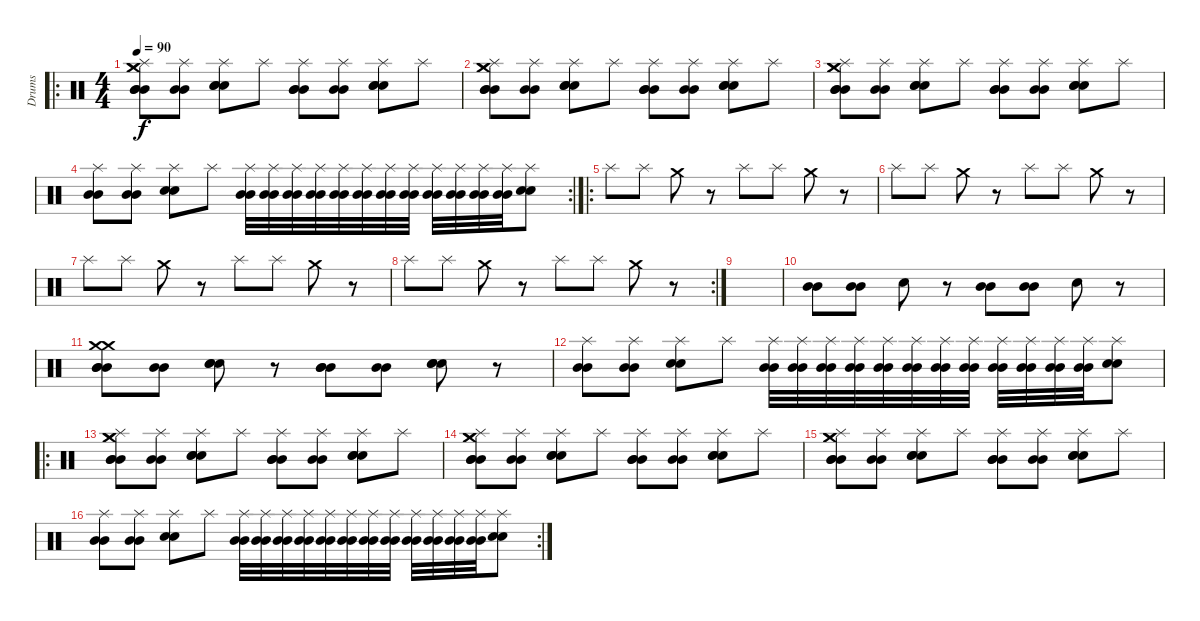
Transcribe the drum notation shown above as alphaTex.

\track ("Drums" "Drums") {instrument percussion}
\staff {score}
\articulation defaults
\ro
\ts (4 4)
\tempo 90
\clef neutral
\ks c
("Mid Tom (hit)" "Mid Tom (hit)" "Mid Tom (hit)" "Crash medium (hit)" "Crash medium (hit)" "Splash (hit)").8{dy f} ("Mid Tom (hit)" "Mid Tom (hit)" "Splash (hit)").8 ("Electric Snare (hit)" "Electric Snare (hit)" "Electric Snare (hit)" "Splash (hit)").8 "Splash (hit)".8 ("Mid Tom (hit)" "Mid Tom (hit)" "Mid Tom (hit)" "Splash (hit)").8 ("Mid Tom (hit)" "Mid Tom (hit)" "Splash (hit)").8 ("Electric Snare (hit)" "Electric Snare (hit)" "Electric Snare (hit)" "Splash (hit)").8 "Splash (hit)".8 |
("Mid Tom (hit)" "Mid Tom (hit)" "Mid Tom (hit)" "Crash medium (hit)" "Crash medium (hit)" "Splash (hit)").8 ("Mid Tom (hit)" "Mid Tom (hit)" "Splash (hit)").8 ("Electric Snare (hit)" "Electric Snare (hit)" "Electric Snare (hit)" "Splash (hit)").8 "Splash (hit)".8 ("Mid Tom (hit)" "Mid Tom (hit)" "Mid Tom (hit)" "Splash (hit)").8 ("Mid Tom (hit)" "Mid Tom (hit)" "Splash (hit)").8 ("Electric Snare (hit)" "Electric Snare (hit)" "Electric Snare (hit)" "Splash (hit)").8 "Splash (hit)".8 |
("Mid Tom (hit)" "Mid Tom (hit)" "Mid Tom (hit)" "Crash medium (hit)" "Crash medium (hit)" "Splash (hit)").8 ("Mid Tom (hit)" "Mid Tom (hit)" "Splash (hit)").8 ("Electric Snare (hit)" "Electric Snare (hit)" "Electric Snare (hit)" "Splash (hit)").8 "Splash (hit)".8 ("Mid Tom (hit)" "Mid Tom (hit)" "Mid Tom (hit)" "Splash (hit)").8 ("Mid Tom (hit)" "Mid Tom (hit)" "Splash (hit)").8 ("Electric Snare (hit)" "Electric Snare (hit)" "Electric Snare (hit)" "Splash (hit)").8 "Splash (hit)".8 |
\rc 2
("Mid Tom (hit)" "Mid Tom (hit)" "Splash (hit)").8 ("Mid Tom (hit)" "Mid Tom (hit)" "Splash (hit)").8 ("Electric Snare (hit)" "Electric Snare (hit)" "Splash (hit)").8 "Splash (hit)".8 ("Mid Tom (hit)" "Mid Tom (hit)" "Splash (hit)").32 ("Mid Tom (hit)" "Mid Tom (hit)" "Splash (hit)").32 ("Mid Tom (hit)" "Mid Tom (hit)" "Splash (hit)").32 ("Mid Tom (hit)" "Mid Tom (hit)" "Splash (hit)").32 ("Mid Tom (hit)" "Mid Tom (hit)" "Splash (hit)").32 ("Mid Tom (hit)" "Mid Tom (hit)" "Splash (hit)").32 ("Mid Tom (hit)" "Mid Tom (hit)" "Splash (hit)").32 ("Mid Tom (hit)" "Mid Tom (hit)" "Splash (hit)").32 ("Mid Tom (hit)" "Mid Tom (hit)" "Splash (hit)").32 ("Mid Tom (hit)" "Mid Tom (hit)" "Splash (hit)").32 ("Mid Tom (hit)" "Mid Tom (hit)" "Splash (hit)").32 ("Mid Tom (hit)" "Mid Tom (hit)" "Splash (hit)").32 ("Electric Snare (hit)" "Electric Snare (hit)" "Splash (hit)").8 |
\ro "Splash (hit)".8 "Splash (hit)".8 "Crash medium (hit)".8
r.8 "Splash (hit)".8 "Splash (hit)".8 "Crash medium (hit)".8 r.8 |
"Splash (hit)".8 "Splash (hit)".8 "Crash medium (hit)".8 r.8 "Splash (hit)".8 "Splash (hit)".8 "Crash medium (hit)".8 r.8 |
"Splash (hit)".8 "Splash (hit)".8 "Crash medium (hit)".8 r.8 "Splash (hit)".8 "Splash (hit)".8 "Crash medium (hit)".8 r.8 |
\rc 2 "Splash (hit)".8 "Splash (hit)".8 "Crash medium (hit)".8
r.8 "Splash (hit)".8 "Splash (hit)".8 "Crash medium (hit)".8 r.8 |
|
("Mid Tom (hit)" "Mid Tom (hit)").8 ("Mid Tom (hit)" "Mid Tom (hit)").8 "Electric Snare (hit)".8 r.8 ("Mid Tom (hit)" "Mid Tom (hit)").8 ("Mid Tom (hit)" "Mid Tom (hit)").8 "Electric Snare (hit)".8 r.8 |
("Mid Tom (hit)" "Mid Tom (hit)" "Mid Tom (hit)" "Crash medium (hit)" "Crash medium (hit)").8 ("Mid Tom (hit)" "Mid Tom (hit)").8 ("Electric Snare (hit)" "Electric Snare (hit)" "Electric Snare (hit)").8 r.8 ("Mid Tom (hit)" "Mid Tom (hit)" "Mid Tom (hit)").8 ("Mid Tom (hit)" "Mid Tom (hit)").8 ("Electric Snare (hit)" "Electric Snare (hit)" "Electric Snare (hit)").8 r.8 |
("Mid Tom (hit)" "Mid Tom (hit)" "Splash (hit)").8 ("Mid Tom (hit)" "Mid Tom (hit)" "Splash (hit)").8 ("Electric Snare (hit)" "Electric Snare (hit)" "Splash (hit)").8 "Splash (hit)".8 ("Mid Tom (hit)" "Mid Tom (hit)" "Splash (hit)").32 ("Mid Tom (hit)" "Mid Tom (hit)" "Splash (hit)").32 ("Mid Tom (hit)" "Mid Tom (hit)" "Splash (hit)").32 ("Mid Tom (hit)" "Mid Tom (hit)" "Splash (hit)").32 ("Mid Tom (hit)" "Mid Tom (hit)" "Splash (hit)").32 ("Mid Tom (hit)" "Mid Tom (hit)" "Splash (hit)").32 ("Mid Tom (hit)" "Mid Tom (hit)" "Splash (hit)").32 ("Mid Tom (hit)" "Mid Tom (hit)" "Splash (hit)").32 ("Mid Tom (hit)" "Mid Tom (hit)" "Splash (hit)").32 ("Mid Tom (hit)" "Mid Tom (hit)" "Splash (hit)").32 ("Mid Tom (hit)" "Mid Tom (hit)" "Splash (hit)").32 ("Mid Tom (hit)" "Mid Tom (hit)" "Splash (hit)").32 ("Electric Snare (hit)" "Electric Snare (hit)" "Splash (hit)").8 |
\ro
("Mid Tom (hit)" "Mid Tom (hit)" "Mid Tom (hit)" "Crash medium (hit)" "Crash medium (hit)" "Splash (hit)").8 ("Mid Tom (hit)" "Mid Tom (hit)" "Splash (hit)").8 ("Electric Snare (hit)" "Electric Snare (hit)" "Electric Snare (hit)" "Splash (hit)").8 "Splash (hit)".8 ("Mid Tom (hit)" "Mid Tom (hit)" "Mid Tom (hit)" "Splash (hit)").8 ("Mid Tom (hit)" "Mid Tom (hit)" "Splash (hit)").8 ("Electric Snare (hit)" "Electric Snare (hit)" "Electric Snare (hit)" "Splash (hit)").8 "Splash (hit)".8 |
("Mid Tom (hit)" "Mid Tom (hit)" "Mid Tom (hit)" "Crash medium (hit)" "Crash medium (hit)" "Splash (hit)").8 ("Mid Tom (hit)" "Mid Tom (hit)" "Splash (hit)").8 ("Electric Snare (hit)" "Electric Snare (hit)" "Electric Snare (hit)" "Splash (hit)").8 "Splash (hit)".8 ("Mid Tom (hit)" "Mid Tom (hit)" "Mid Tom (hit)" "Splash (hit)").8 ("Mid Tom (hit)" "Mid Tom (hit)" "Splash (hit)").8 ("Electric Snare (hit)" "Electric Snare (hit)" "Electric Snare (hit)" "Splash (hit)").8 "Splash (hit)".8 |
("Mid Tom (hit)" "Mid Tom (hit)" "Mid Tom (hit)" "Crash medium (hit)" "Crash medium (hit)" "Splash (hit)").8 ("Mid Tom (hit)" "Mid Tom (hit)" "Splash (hit)").8 ("Electric Snare (hit)" "Electric Snare (hit)" "Electric Snare (hit)" "Splash (hit)").8 "Splash (hit)".8 ("Mid Tom (hit)" "Mid Tom (hit)" "Mid Tom (hit)" "Splash (hit)").8 ("Mid Tom (hit)" "Mid Tom (hit)" "Splash (hit)").8 ("Electric Snare (hit)" "Electric Snare (hit)" "Electric Snare (hit)" "Splash (hit)").8 "Splash (hit)".8 |
\rc 2
("Mid Tom (hit)" "Mid Tom (hit)" "Splash (hit)").8 ("Mid Tom (hit)" "Mid Tom (hit)" "Splash (hit)").8 ("Electric Snare (hit)" "Electric Snare (hit)" "Splash (hit)").8 "Splash (hit)".8 ("Mid Tom (hit)" "Mid Tom (hit)" "Splash (hit)").32 ("Mid Tom (hit)" "Mid Tom (hit)" "Splash (hit)").32 ("Mid Tom (hit)" "Mid Tom (hit)" "Splash (hit)").32 ("Mid Tom (hit)" "Mid Tom (hit)" "Splash (hit)").32 ("Mid Tom (hit)" "Mid Tom (hit)" "Splash (hit)").32 ("Mid Tom (hit)" "Mid Tom (hit)" "Splash (hit)").32 ("Mid Tom (hit)" "Mid Tom (hit)" "Splash (hit)").32 ("Mid Tom (hit)" "Mid Tom (hit)" "Splash (hit)").32 ("Mid Tom (hit)" "Mid Tom (hit)" "Splash (hit)").32 ("Mid Tom (hit)" "Mid Tom (hit)" "Splash (hit)").32 ("Mid Tom (hit)" "Mid Tom (hit)" "Splash (hit)").32 ("Mid Tom (hit)" "Mid Tom (hit)" "Splash (hit)").32 ("Electric Snare (hit)" "Electric Snare (hit)" "Splash (hit)").8
